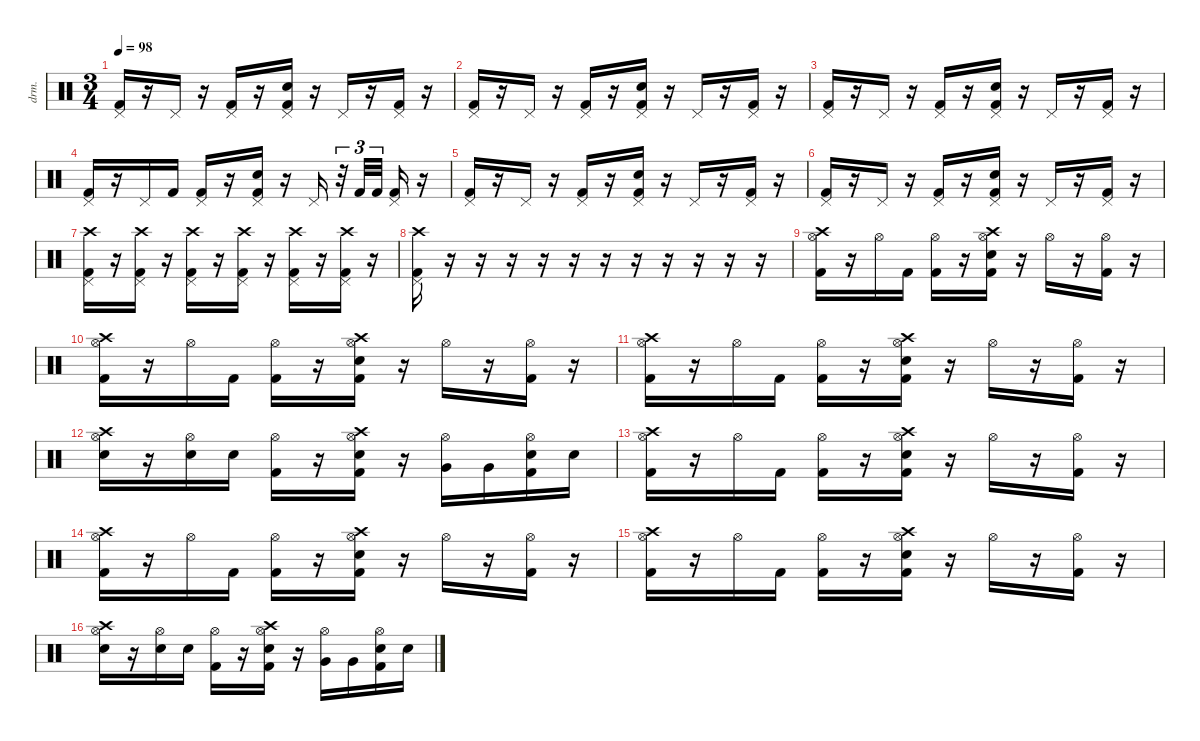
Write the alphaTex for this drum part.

\defaultSystemsLayout 4
\hideDynamics
\bracketExtendMode nobrackets
\otherSystemsTrackNameOrientation horizontal
\track ("Ударные" "drm.") {instrument percussion}
\staff {score}
\articulation defaults
\ts (3 4)
\tempo 98
\clef neutral
\ks c
("Kick (hit) 2" "Pedal Hi-Hat (hit)").16{dy f beam Up} r.16{beam Up} "Pedal Hi-Hat (hit)".16{beam Up} r.16{beam Up} ("Kick (hit) 2" "Pedal Hi-Hat (hit)").16{beam Up} r.16{beam Up} ("Snare (hit) 2" "Kick (hit) 2" "Pedal Hi-Hat (hit)").16{beam Up} r.16{beam Up} "Pedal Hi-Hat (hit)".16{beam Up} r.16{beam Up} ("Kick (hit) 2" "Pedal Hi-Hat (hit)").16{beam Up} r.16{beam Up} |
("Kick (hit) 2" "Pedal Hi-Hat (hit)").16{beam Up} r.16{beam Up} "Pedal Hi-Hat (hit)".16{beam Up} r.16{beam Up} ("Kick (hit) 2" "Pedal Hi-Hat (hit)").16{beam Up} r.16{beam Up} ("Snare (hit) 2" "Kick (hit) 2" "Pedal Hi-Hat (hit)").16{beam Up} r.16{beam Up} "Pedal Hi-Hat (hit)".16{beam Up} r.16{beam Up} ("Kick (hit) 2" "Pedal Hi-Hat (hit)").16{beam Up} r.16{beam Up} |
("Kick (hit) 2" "Pedal Hi-Hat (hit)").16{beam Up} r.16{beam Up} "Pedal Hi-Hat (hit)".16{beam Up} r.16{beam Up} ("Kick (hit) 2" "Pedal Hi-Hat (hit)").16{beam Up} r.16{beam Up} ("Snare (hit) 2" "Kick (hit) 2" "Pedal Hi-Hat (hit)").16{beam Up} r.16{beam Up} "Pedal Hi-Hat (hit)".16{beam Up} r.16{beam Up} ("Kick (hit) 2" "Pedal Hi-Hat (hit)").16{beam Up} r.16{beam Up} |
("Kick (hit) 2" "Pedal Hi-Hat (hit)").16{beam Up} r.16{beam Up} "Pedal Hi-Hat (hit)".16{beam Up} "Kick (hit) 2".16{dy mf beam Up} ("Kick (hit) 2" "Pedal Hi-Hat (hit)").16{dy f beam Up} r.16{beam Up} ("Snare (hit) 2" "Kick (hit) 2" "Pedal Hi-Hat (hit)").16{beam Up} r.16{beam Up} "Pedal Hi-Hat (hit)".16{dy mf beam Up} r.32{tu (3 2) beam Up} "Kick (hit) 2".32{tu (3 2) beam Up} "Kick (hit) 2".32{tu (3 2) beam Up} ("Kick (hit) 2" "Pedal Hi-Hat (hit)").16{beam Up} r.16{beam Up} |
("Kick (hit) 2" "Pedal Hi-Hat (hit)").16{dy f beam Up} r.16{beam Up} "Pedal Hi-Hat (hit)".16{beam Up} r.16{beam Up} ("Kick (hit) 2" "Pedal Hi-Hat (hit)").16{beam Up} r.16{beam Up} ("Snare (hit) 2" "Kick (hit) 2" "Pedal Hi-Hat (hit)").16{beam Up} r.16{beam Up} "Pedal Hi-Hat (hit)".16{beam Up} r.16{beam Up} ("Kick (hit) 2" "Pedal Hi-Hat (hit)").16{beam Up} r.16{beam Up} |
("Kick (hit) 2" "Pedal Hi-Hat (hit)").16{beam Up} r.16{beam Up} "Pedal Hi-Hat (hit)".16{beam Up} r.16{beam Up} ("Kick (hit) 2" "Pedal Hi-Hat (hit)").16{beam Up} r.16{beam Up} ("Snare (hit) 2" "Kick (hit) 2" "Pedal Hi-Hat (hit)").16{beam Up} r.16{beam Up} "Pedal Hi-Hat (hit)".16{beam Up} r.16{beam Up} ("Kick (hit) 2" "Pedal Hi-Hat (hit)").16{beam Up} r.16{beam Up} |
("Crash high (hit)" "Kick (hit) 2" "Pedal Hi-Hat (hit)").16{dy fff beam Down} r.16{beam Down} ("Crash high (hit)" "Kick (hit) 2" "Pedal Hi-Hat (hit)").16{dy mf beam Down} r.16{beam Down} ("Crash high (hit)" "Kick (hit) 2" "Pedal Hi-Hat (hit)").16{beam Down} r.16{beam Down} ("Crash high (hit)" "Kick (hit) 2" "Pedal Hi-Hat (hit)").16{beam Down} r.16{beam Down} ("Crash high (hit)" "Kick (hit) 2" "Pedal Hi-Hat (hit)").16{beam Down} r.16{beam Down} ("Crash high (hit)" "Kick (hit) 2" "Pedal Hi-Hat (hit)").16{beam Down} r.16{beam Down} |
("Crash high (hit)" "Kick (hit) 2" "Pedal Hi-Hat (hit)").16{beam Down} r.16{beam Down} r.16{beam Down} r.16{beam Down} r.16{beam Down} r.16{beam Down} r.16{beam Down} r.16{beam Down} r.16{beam Down} r.16{beam Down} r.16{beam Down} r.16{beam Down} |
("Crash high (hit)" "Kick (hit) 2" "Hi-Hat (open)").16{dy fff beam Down} r.16{beam Down} "Hi-Hat (open)".16{dy f beam Down} "Kick (hit) 2".16{dy mf beam Down} ("Kick (hit) 2" "Hi-Hat (open)").16{dy f beam Down} r.16{beam Down} ("Crash high (hit)" "Snare (hit) 2" "Kick (hit) 2" "Hi-Hat (open)").16{beam Down} r.16{beam Down} "Hi-Hat (open)".16{beam Down} r.16{beam Down} ("Kick (hit) 2" "Hi-Hat (open)").16{beam Down} r.16{beam Down} |
("Crash high (hit)" "Kick (hit) 2" "Hi-Hat (open)").16{dy fff beam Down} r.16{beam Down} "Hi-Hat (open)".16{dy f beam Down} "Kick (hit) 2".16{beam Down} ("Kick (hit) 2" "Hi-Hat (open)").16{beam Down} r.16{beam Down} ("Crash high (hit)" "Snare (hit) 2" "Kick (hit) 2" "Hi-Hat (open)").16{beam Down} r.16{beam Down} "Hi-Hat (open)".16{beam Down} r.16{beam Down} ("Kick (hit) 2" "Hi-Hat (open)").16{beam Down} r.16{beam Down} |
("Crash high (hit)" "Kick (hit) 2" "Hi-Hat (open)").16{dy fff beam Down} r.16{beam Down} "Hi-Hat (open)".16{dy f beam Down} "Kick (hit) 2".16{beam Down} ("Kick (hit) 2" "Hi-Hat (open)").16{beam Down} r.16{beam Down} ("Crash high (hit)" "Snare (hit) 2" "Kick (hit) 2" "Hi-Hat (open)").16{beam Down} r.16{beam Down} "Hi-Hat (open)".16{beam Down} r.16{beam Down} ("Kick (hit) 2" "Hi-Hat (open)").16{beam Down} r.16{beam Down} |
("Crash high (hit)" "Snare (hit) 2" "Hi-Hat (open)").16{dy fff beam Down} r.16{beam Down} ("Snare (hit) 2" "Hi-Hat (open)").16{dy f beam Down} "Snare (hit) 2".16{beam Down} ("Kick (hit) 2" "Hi-Hat (open)").16{beam Down} r.16{beam Down} ("Crash high (hit)" "Snare (hit) 2" "Kick (hit) 2" "Hi-Hat (open)").16{beam Down} r.16{beam Down} ("Very Low Tom (hit)" "Hi-Hat (open)").16{beam Down} "Very Low Tom (hit)".16{beam Down} ("Snare (hit) 2" "Kick (hit) 2" "Hi-Hat (open)").16{beam Down} "Snare (hit) 2".16{beam Down} |
("Crash high (hit)" "Kick (hit) 2" "Hi-Hat (open)").16{dy fff beam Down} r.16{beam Down} "Hi-Hat (open)".16{dy f beam Down} "Kick (hit) 2".16{dy mf beam Down} ("Kick (hit) 2" "Hi-Hat (open)").16{dy f beam Down} r.16{beam Down} ("Crash high (hit)" "Snare (hit) 2" "Kick (hit) 2" "Hi-Hat (open)").16{beam Down} r.16{beam Down} "Hi-Hat (open)".16{beam Down} r.16{beam Down} ("Kick (hit) 2" "Hi-Hat (open)").16{beam Down} r.16{beam Down} |
("Crash high (hit)" "Kick (hit) 2" "Hi-Hat (open)").16{dy fff beam Down} r.16{beam Down} "Hi-Hat (open)".16{dy f beam Down} "Kick (hit) 2".16{beam Down} ("Kick (hit) 2" "Hi-Hat (open)").16{beam Down} r.16{beam Down} ("Crash high (hit)" "Snare (hit) 2" "Kick (hit) 2" "Hi-Hat (open)").16{beam Down} r.16{beam Down} "Hi-Hat (open)".16{beam Down} r.16{beam Down} ("Kick (hit) 2" "Hi-Hat (open)").16{beam Down} r.16{beam Down} |
("Crash high (hit)" "Kick (hit) 2" "Hi-Hat (open)").16{dy fff beam Down} r.16{beam Down} "Hi-Hat (open)".16{dy f beam Down} "Kick (hit) 2".16{beam Down} ("Kick (hit) 2" "Hi-Hat (open)").16{beam Down} r.16{beam Down} ("Crash high (hit)" "Snare (hit) 2" "Kick (hit) 2" "Hi-Hat (open)").16{beam Down} r.16{beam Down} "Hi-Hat (open)".16{beam Down} r.16{beam Down} ("Kick (hit) 2" "Hi-Hat (open)").16{beam Down} r.16{beam Down} |
("Crash high (hit)" "Snare (hit) 2" "Hi-Hat (open)").16{dy fff beam Down} r.16{beam Down} ("Snare (hit) 2" "Hi-Hat (open)").16{dy f beam Down} "Snare (hit) 2".16{beam Down} ("Kick (hit) 2" "Hi-Hat (open)").16{beam Down} r.16{beam Down} ("Crash high (hit)" "Snare (hit) 2" "Kick (hit) 2" "Hi-Hat (open)").16{beam Down} r.16{beam Down} ("Very Low Tom (hit)" "Hi-Hat (open)").16{beam Down} "Very Low Tom (hit)".16{beam Down} ("Snare (hit) 2" "Kick (hit) 2" "Hi-Hat (open)").16{beam Down} "Snare (hit) 2".16{beam Down}
